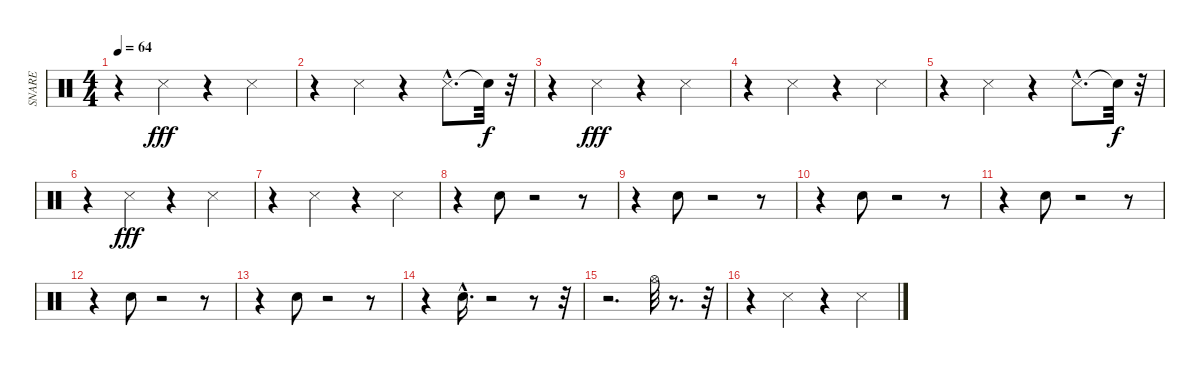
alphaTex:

\track ("SNARE" "SNARE") {instrument percussion}
\staff {score}
\articulation defaults
\ts (4 4)
\tempo 64
\clef neutral
\ks c
r.4{dy fff} "Snare (side stick) 3".4 r.4 "Snare (side stick) 3".4 |
r.4 "Snare (side stick) 3".4 r.4 "Snare (side stick) 3"{hac}.8{d} "Snare (hit)"{t}.32{dy f} r.32 |
r.4 "Snare (side stick) 3".4{dy fff} r.4 "Snare (side stick) 3".4 |
r.4 "Snare (side stick) 3".4 r.4 "Snare (side stick) 3".4 |
r.4 "Snare (side stick) 3".4 r.4 "Snare (side stick) 3"{hac}.8{d} "Snare (hit)"{t}.32{dy f} r.32 |
r.4 "Snare (side stick) 3".4{dy fff} r.4 "Snare (side stick) 3".4 |
r.4 "Snare (side stick) 3".4 r.4 "Snare (side stick) 3".4 |
r.4 "Snare (hit) 2".8 r.2 r.8 |
r.4 "Snare (hit) 2".8 r.2 r.8 |
r.4 "Snare (hit) 2".8 r.2 r.8 |
r.4 "Snare (hit) 2".8 r.2 r.8 |
r.4 "Snare (hit) 2".8 r.2 r.8 |
r.4 "Snare (hit) 2".8 r.2 r.8 |
r.4 "Snare (hit) 2"{hac}.16{d} r.2 r.8 r.32 |
r.2{d} "Hi-Hat (open)".32 r.8{d} r.32 |
r.4 "Snare (side stick) 3".4 r.4 "Snare (side stick) 3".4
